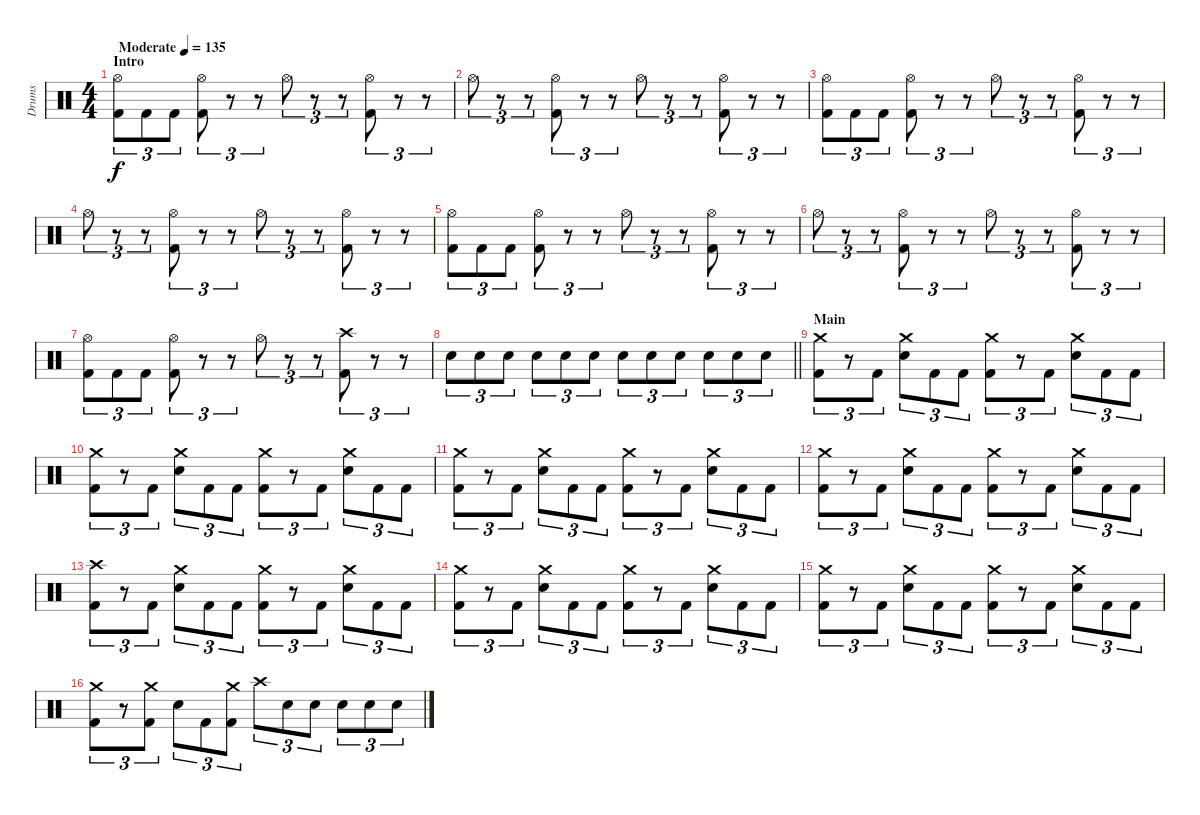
\track ("Drums" "Drums") {instrument percussion}
\staff {score}
\articulation defaults
\ts (4 4)
\section ("" "Intro")
\tempo (135 "Moderate")
\clef neutral
\ks c
("Hi-Hat (open)" "Kick (hit) 2").8{tu (3 2) dy f} "Kick (hit) 2".8{tu (3 2)} "Kick (hit) 2".8{tu (3 2)} ("Hi-Hat (open)" "Kick (hit) 2").8{tu (3 2)} r.8{tu (3 2)} r.8{tu (3 2)} "Hi-Hat (open)".8{tu (3 2)} r.8{tu (3 2)} r.8{tu (3 2)} ("Hi-Hat (open)" "Kick (hit) 2").8{tu (3 2)} r.8{tu (3 2)} r.8{tu (3 2)} |
"Hi-Hat (open)".8{tu (3 2)} r.8{tu (3 2)} r.8{tu (3 2)} ("Hi-Hat (open)" "Kick (hit) 2").8{tu (3 2)} r.8{tu (3 2)} r.8{tu (3 2)} "Hi-Hat (open)".8{tu (3 2)} r.8{tu (3 2)} r.8{tu (3 2)} ("Hi-Hat (open)" "Kick (hit) 2").8{tu (3 2)} r.8{tu (3 2)} r.8{tu (3 2)} |
("Hi-Hat (open)" "Kick (hit) 2").8{tu (3 2)} "Kick (hit) 2".8{tu (3 2)} "Kick (hit) 2".8{tu (3 2)} ("Hi-Hat (open)" "Kick (hit) 2").8{tu (3 2)} r.8{tu (3 2)} r.8{tu (3 2)} "Hi-Hat (open)".8{tu (3 2)} r.8{tu (3 2)} r.8{tu (3 2)} ("Hi-Hat (open)" "Kick (hit) 2").8{tu (3 2)} r.8{tu (3 2)} r.8{tu (3 2)} |
"Hi-Hat (open)".8{tu (3 2)} r.8{tu (3 2)} r.8{tu (3 2)} ("Hi-Hat (open)" "Kick (hit) 2").8{tu (3 2)} r.8{tu (3 2)} r.8{tu (3 2)} "Hi-Hat (open)".8{tu (3 2)} r.8{tu (3 2)} r.8{tu (3 2)} ("Hi-Hat (open)" "Kick (hit) 2").8{tu (3 2)} r.8{tu (3 2)} r.8{tu (3 2)} |
("Hi-Hat (open)" "Kick (hit) 2").8{tu (3 2)} "Kick (hit) 2".8{tu (3 2)} "Kick (hit) 2".8{tu (3 2)} ("Hi-Hat (open)" "Kick (hit) 2").8{tu (3 2)} r.8{tu (3 2)} r.8{tu (3 2)} "Hi-Hat (open)".8{tu (3 2)} r.8{tu (3 2)} r.8{tu (3 2)} ("Hi-Hat (open)" "Kick (hit) 2").8{tu (3 2)} r.8{tu (3 2)} r.8{tu (3 2)} |
"Hi-Hat (open)".8{tu (3 2)} r.8{tu (3 2)} r.8{tu (3 2)} ("Hi-Hat (open)" "Kick (hit) 2").8{tu (3 2)} r.8{tu (3 2)} r.8{tu (3 2)} "Hi-Hat (open)".8{tu (3 2)} r.8{tu (3 2)} r.8{tu (3 2)} ("Hi-Hat (open)" "Kick (hit) 2").8{tu (3 2)} r.8{tu (3 2)} r.8{tu (3 2)} |
("Hi-Hat (open)" "Kick (hit) 2").8{tu (3 2)} "Kick (hit) 2".8{tu (3 2)} "Kick (hit) 2".8{tu (3 2)} ("Hi-Hat (open)" "Kick (hit) 2").8{tu (3 2)} r.8{tu (3 2)} r.8{tu (3 2)} "Hi-Hat (open)".8{tu (3 2)} r.8{tu (3 2)} r.8{tu (3 2)} ("Crash high (hit)" "Kick (hit) 2").8{tu (3 2)} r.8{tu (3 2)} r.8{tu (3 2)} |
\barLineRight lightlight "Electric Snare (hit)".8{tu (3 2)} "Electric Snare (hit)".8{tu (3 2)} "Electric Snare (hit)".8{tu (3 2)} "Electric Snare (hit)".8{tu (3 2)} "Electric Snare (hit)".8{tu (3 2)} "Electric Snare (hit)".8{tu (3 2)} "Electric Snare (hit)".8{tu (3 2)} "Electric Snare (hit)".8{tu (3 2)} "Electric Snare (hit)".8{tu (3 2)} "Electric Snare (hit)".8{tu (3 2)} "Electric Snare (hit)".8{tu (3 2)} "Electric Snare (hit)".8{tu (3 2)}
|
\section ("" "Main")
("Crash medium (hit)" "Kick (hit) 2").8{tu (3 2)} r.8{tu (3 2)} "Kick (hit) 2".8{tu (3 2)} ("Crash medium (hit)" "Electric Snare (hit)").8{tu (3 2)} "Kick (hit) 2".8{tu (3 2)} "Kick (hit) 2".8{tu (3 2)} ("Crash medium (hit)" "Kick (hit) 2").8{tu (3 2)} r.8{tu (3 2)} "Kick (hit) 2".8{tu (3 2)} ("Crash medium (hit)" "Electric Snare (hit)").8{tu (3 2)} "Kick (hit) 2".8{tu (3 2)} "Kick (hit) 2".8{tu (3 2)} |
("Crash medium (hit)" "Kick (hit) 2").8{tu (3 2)} r.8{tu (3 2)} "Kick (hit) 2".8{tu (3 2)} ("Crash medium (hit)" "Electric Snare (hit)").8{tu (3 2)} "Kick (hit) 2".8{tu (3 2)} "Kick (hit) 2".8{tu (3 2)} ("Crash medium (hit)" "Kick (hit) 2").8{tu (3 2)} r.8{tu (3 2)} "Kick (hit) 2".8{tu (3 2)} ("Crash medium (hit)" "Electric Snare (hit)").8{tu (3 2)} "Kick (hit) 2".8{tu (3 2)} "Kick (hit) 2".8{tu (3 2)} |
("Crash medium (hit)" "Kick (hit) 2").8{tu (3 2)} r.8{tu (3 2)} "Kick (hit) 2".8{tu (3 2)} ("Crash medium (hit)" "Electric Snare (hit)").8{tu (3 2)} "Kick (hit) 2".8{tu (3 2)} "Kick (hit) 2".8{tu (3 2)} ("Crash medium (hit)" "Kick (hit) 2").8{tu (3 2)} r.8{tu (3 2)} "Kick (hit) 2".8{tu (3 2)} ("Crash medium (hit)" "Electric Snare (hit)").8{tu (3 2)} "Kick (hit) 2".8{tu (3 2)} "Kick (hit) 2".8{tu (3 2)} |
("Crash medium (hit)" "Kick (hit) 2").8{tu (3 2)} r.8{tu (3 2)} "Kick (hit) 2".8{tu (3 2)} ("Crash medium (hit)" "Electric Snare (hit)").8{tu (3 2)} "Kick (hit) 2".8{tu (3 2)} "Kick (hit) 2".8{tu (3 2)} ("Crash medium (hit)" "Kick (hit) 2").8{tu (3 2)} r.8{tu (3 2)} "Kick (hit) 2".8{tu (3 2)} ("Crash medium (hit)" "Electric Snare (hit)").8{tu (3 2)} "Kick (hit) 2".8{tu (3 2)} "Kick (hit) 2".8{tu (3 2)} |
("Crash high (hit)" "Kick (hit) 2").8{tu (3 2)} r.8{tu (3 2)} "Kick (hit) 2".8{tu (3 2)} ("Crash medium (hit)" "Electric Snare (hit)").8{tu (3 2)} "Kick (hit) 2".8{tu (3 2)} "Kick (hit) 2".8{tu (3 2)} ("Crash medium (hit)" "Kick (hit) 2").8{tu (3 2)} r.8{tu (3 2)} "Kick (hit) 2".8{tu (3 2)} ("Crash medium (hit)" "Electric Snare (hit)").8{tu (3 2)} "Kick (hit) 2".8{tu (3 2)} "Kick (hit) 2".8{tu (3 2)} |
("Crash medium (hit)" "Kick (hit) 2").8{tu (3 2)} r.8{tu (3 2)} "Kick (hit) 2".8{tu (3 2)} ("Crash medium (hit)" "Electric Snare (hit)").8{tu (3 2)} "Kick (hit) 2".8{tu (3 2)} "Kick (hit) 2".8{tu (3 2)} ("Crash medium (hit)" "Kick (hit) 2").8{tu (3 2)} r.8{tu (3 2)} "Kick (hit) 2".8{tu (3 2)} ("Crash medium (hit)" "Electric Snare (hit)").8{tu (3 2)} "Kick (hit) 2".8{tu (3 2)} "Kick (hit) 2".8{tu (3 2)} |
("Crash medium (hit)" "Kick (hit) 2").8{tu (3 2)} r.8{tu (3 2)} "Kick (hit) 2".8{tu (3 2)} ("Crash medium (hit)" "Electric Snare (hit)").8{tu (3 2)} "Kick (hit) 2".8{tu (3 2)} "Kick (hit) 2".8{tu (3 2)} ("Crash medium (hit)" "Kick (hit) 2").8{tu (3 2)} r.8{tu (3 2)} "Kick (hit) 2".8{tu (3 2)} ("Crash medium (hit)" "Electric Snare (hit)").8{tu (3 2)} "Kick (hit) 2".8{tu (3 2)} "Kick (hit) 2".8{tu (3 2)} |
("Crash medium (hit)" "Kick (hit) 2").8{tu (3 2)} r.8{tu (3 2)} ("Crash medium (hit)" "Kick (hit) 2").8{tu (3 2)} "Electric Snare (hit)".8{tu (3 2)} "Kick (hit) 2".8{tu (3 2)} ("Crash medium (hit)" "Kick (hit) 2").8{tu (3 2)} "Crash high (hit)".8{tu (3 2)} "Electric Snare (hit)".8{tu (3 2)} "Electric Snare (hit)".8{tu (3 2)} "Electric Snare (hit)".8{tu (3 2)} "Electric Snare (hit)".8{tu (3 2)} "Electric Snare (hit)".8{tu (3 2)}
